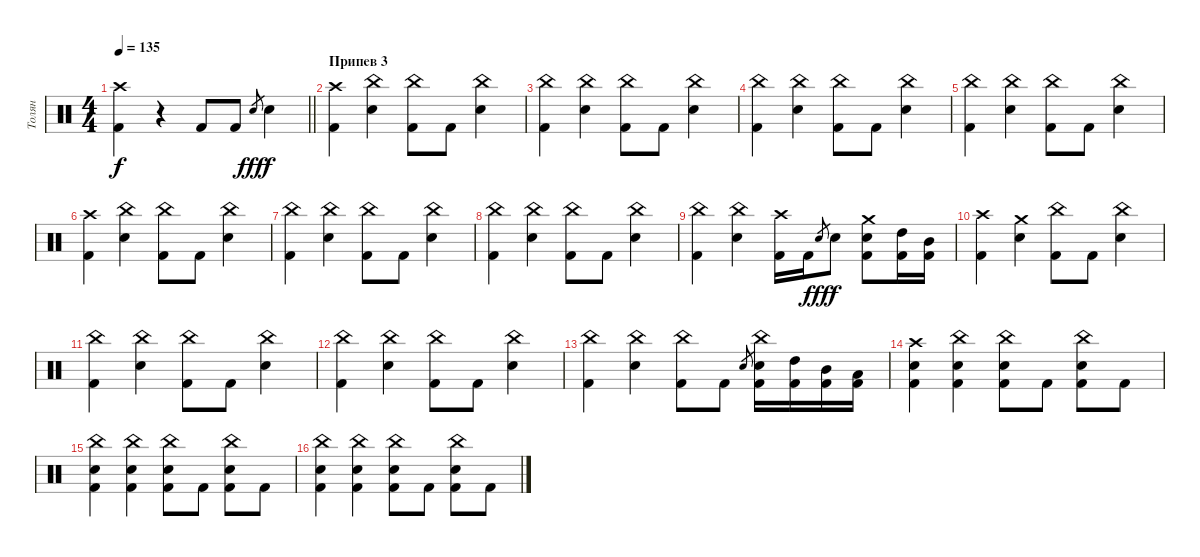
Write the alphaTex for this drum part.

\track ("Толян" "Толян") {instrument percussion}
\staff {score}
\articulation defaults
\ts (4 4)
\tempo 135
\clef neutral
\barLineRight lightlight
\ks c
("Crash high (hit)" "Kick (hit) 2").4{dy f} r.4 "Kick (hit) 2".8 "Kick (hit) 2".8 "Electric Snare (hit)"{sl}.8{gr dy fff} "Electric Snare (hit)".4{dy f} |
\section ("" "Припев 3")
("Crash high (hit)" "Kick (hit) 2").4 ("China (hit)" "Electric Snare (hit)").4 ("China (hit)" "Kick (hit) 2").8 "Kick (hit) 2".8 ("China (hit)" "Electric Snare (hit)").4 |
("China (hit)" "Kick (hit) 2").4 ("China (hit)" "Electric Snare (hit)").4 ("China (hit)" "Kick (hit) 2").8 "Kick (hit) 2".8 ("China (hit)" "Electric Snare (hit)").4 |
("China (hit)" "Kick (hit) 2").4 ("China (hit)" "Electric Snare (hit)").4 ("China (hit)" "Kick (hit) 2").8 "Kick (hit) 2".8 ("China (hit)" "Electric Snare (hit)").4 |
("China (hit)" "Kick (hit) 2").4 ("China (hit)" "Electric Snare (hit)").4 ("China (hit)" "Kick (hit) 2").8 "Kick (hit) 2".8 ("China (hit)" "Electric Snare (hit)").4 |
("Crash high (hit)" "Kick (hit) 2").4 ("China (hit)" "Electric Snare (hit)").4 ("China (hit)" "Kick (hit) 2").8 "Kick (hit) 2".8 ("China (hit)" "Electric Snare (hit)").4 |
("China (hit)" "Kick (hit) 2").4 ("China (hit)" "Electric Snare (hit)").4 ("China (hit)" "Kick (hit) 2").8 "Kick (hit) 2".8 ("China (hit)" "Electric Snare (hit)").4 |
("China (hit)" "Kick (hit) 2").4 ("China (hit)" "Electric Snare (hit)").4 ("China (hit)" "Kick (hit) 2").8 "Kick (hit) 2".8 ("China (hit)" "Electric Snare (hit)").4 |
("China (hit)" "Kick (hit) 2").4 ("China (hit)" "Electric Snare (hit)").4 ("Crash high (hit)" "Kick (hit) 2").16 "Kick (hit) 2".16 "Electric Snare (hit)".8{gr dy fff} "Electric Snare (hit)".8{dy f} ("Crash medium (hit)" "Electric Snare (hit)" "Kick (hit) 2").8 ("High Tom (hit)" "Kick (hit) 2").16 ("Mid Tom (hit)" "Kick (hit) 2").16 |
("Crash high (hit)" "Kick (hit) 2").4 ("Crash medium (hit)" "Electric Snare (hit)").4 ("China (hit)" "Kick (hit) 2").8 "Kick (hit) 2".8 ("China (hit)" "Electric Snare (hit)").4 |
("China (hit)" "Kick (hit) 2").4 ("China (hit)" "Electric Snare (hit)").4 ("China (hit)" "Kick (hit) 2").8 "Kick (hit) 2".8 ("China (hit)" "Electric Snare (hit)").4 |
("China (hit)" "Kick (hit) 2").4 ("China (hit)" "Electric Snare (hit)").4 ("China (hit)" "Kick (hit) 2").8 "Kick (hit) 2".8 ("China (hit)" "Electric Snare (hit)").4 |
("China (hit)" "Kick (hit) 2").4 ("China (hit)" "Electric Snare (hit)").4 ("China (hit)" "Kick (hit) 2").8 "Kick (hit) 2".8 "Electric Snare (hit)".8{gr} ("China (hit)" "Electric Snare (hit)" "Kick (hit) 2").16 ("High Tom (hit)" "Kick (hit) 2").16 ("Mid Tom (hit)" "Kick (hit) 2").16 ("Low Tom (hit)" "Kick (hit) 2").16 |
("Crash high (hit)" "Electric Snare (hit)" "Kick (hit) 2").4 ("China (hit)" "Electric Snare (hit)" "Kick (hit) 2").4 ("China (hit)" "Electric Snare (hit)" "Kick (hit) 2").8 "Kick (hit) 2".8 ("China (hit)" "Electric Snare (hit)" "Kick (hit) 2").8 "Kick (hit) 2".8 |
("China (hit)" "Electric Snare (hit)" "Kick (hit) 2").4 ("China (hit)" "Electric Snare (hit)" "Kick (hit) 2").4 ("China (hit)" "Electric Snare (hit)" "Kick (hit) 2").8 "Kick (hit) 2".8 ("China (hit)" "Electric Snare (hit)" "Kick (hit) 2").8 "Kick (hit) 2".8 |
("China (hit)" "Electric Snare (hit)" "Kick (hit) 2").4 ("China (hit)" "Electric Snare (hit)" "Kick (hit) 2").4 ("China (hit)" "Electric Snare (hit)" "Kick (hit) 2").8 "Kick (hit) 2".8 ("China (hit)" "Electric Snare (hit)" "Kick (hit) 2").8 "Kick (hit) 2".8
